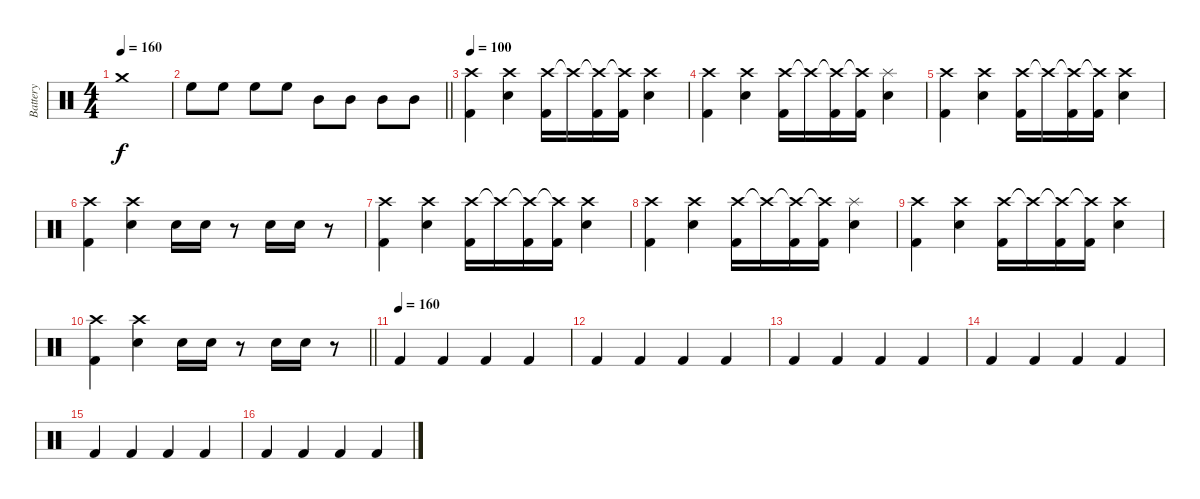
\track ("Battery" "Battery") {instrument percussion}
\staff {score}
\articulation defaults
\ts (4 4)
\tempo 160
\clef neutral
\ks c "Crash medium (hit)".1{dy f}
|
\barLineRight lightlight "High Floor Tom (hit)".8 "High Floor Tom (hit)".8 "High Floor Tom (hit)".8 "High Floor Tom (hit)".8 "Mid Tom (hit)".8 "Mid Tom (hit)".8 "Mid Tom (hit)".8 "Mid Tom (hit)".8
|
\tempo 100
("Crash high (hit)" "Kick (hit) 2").4 ("Crash high (hit)" "Snare (hit) 2").4 ("Crash high (hit)" "Kick (hit) 2").16 "Crash high (hit)"{t}.16 ("Crash high (hit)"{t} "Kick (hit) 2").16 ("Crash high (hit)"{t} "Kick (hit) 2").16 ("Crash high (hit)" "Snare (hit) 2").4 |
("Crash high (hit)" "Kick (hit) 2").4 ("Crash high (hit)" "Snare (hit) 2").4 ("Crash high (hit)" "Kick (hit) 2").16 "Crash high (hit)"{t}.16 ("Crash high (hit)"{t} "Kick (hit) 2").16 ("Crash high (hit)"{t} "Kick (hit) 2").16 ("Splash (hit)" "Snare (hit) 2").4 |
("Crash high (hit)" "Kick (hit) 2").4 ("Crash high (hit)" "Snare (hit) 2").4 ("Crash high (hit)" "Kick (hit) 2").16 "Crash high (hit)"{t}.16 ("Crash high (hit)"{t} "Kick (hit) 2").16 ("Crash high (hit)"{t} "Kick (hit) 2").16 ("Crash high (hit)" "Snare (hit) 2").4 |
("Crash high (hit)" "Kick (hit) 2").4 ("Crash high (hit)" "Snare (hit) 2").4 "Snare (hit) 2".16 "Snare (hit) 2".16 r.8 "Snare (hit) 2".16 "Snare (hit) 2".16 r.8 |
("Crash high (hit)" "Kick (hit) 2").4 ("Crash high (hit)" "Snare (hit) 2").4 ("Crash high (hit)" "Kick (hit) 2").16 "Crash high (hit)"{t}.16 ("Crash high (hit)"{t} "Kick (hit) 2").16 ("Crash high (hit)"{t} "Kick (hit) 2").16 ("Crash high (hit)" "Snare (hit) 2").4 |
("Crash high (hit)" "Kick (hit) 2").4 ("Crash high (hit)" "Snare (hit) 2").4 ("Crash high (hit)" "Kick (hit) 2").16 "Crash high (hit)"{t}.16 ("Crash high (hit)"{t} "Kick (hit) 2").16 ("Crash high (hit)"{t} "Kick (hit) 2").16 ("Splash (hit)" "Snare (hit) 2").4 |
("Crash high (hit)" "Kick (hit) 2").4 ("Crash high (hit)" "Snare (hit) 2").4 ("Crash high (hit)" "Kick (hit) 2").16 "Crash high (hit)"{t}.16 ("Crash high (hit)"{t} "Kick (hit) 2").16 ("Crash high (hit)"{t} "Kick (hit) 2").16 ("Crash high (hit)" "Snare (hit) 2").4 |
\barLineRight lightlight
("Crash high (hit)" "Kick (hit) 2").4 ("Crash high (hit)" "Snare (hit) 2").4 "Snare (hit) 2".16 "Snare (hit) 2".16 r.8 "Snare (hit) 2".16 "Snare (hit) 2".16 r.8 |
\tempo (160)
"Kick (hit) 2".4 "Kick (hit) 2".4 "Kick (hit) 2".4 "Kick (hit) 2".4 |
"Kick (hit) 2".4 "Kick (hit) 2".4 "Kick (hit) 2".4 "Kick (hit) 2".4 |
"Kick (hit) 2".4 "Kick (hit) 2".4 "Kick (hit) 2".4 "Kick (hit) 2".4 |
"Kick (hit) 2".4 "Kick (hit) 2".4 "Kick (hit) 2".4 "Kick (hit) 2".4 |
"Kick (hit) 2".4 "Kick (hit) 2".4 "Kick (hit) 2".4 "Kick (hit) 2".4 |
"Kick (hit) 2".4 "Kick (hit) 2".4 "Kick (hit) 2".4 "Kick (hit) 2".4
